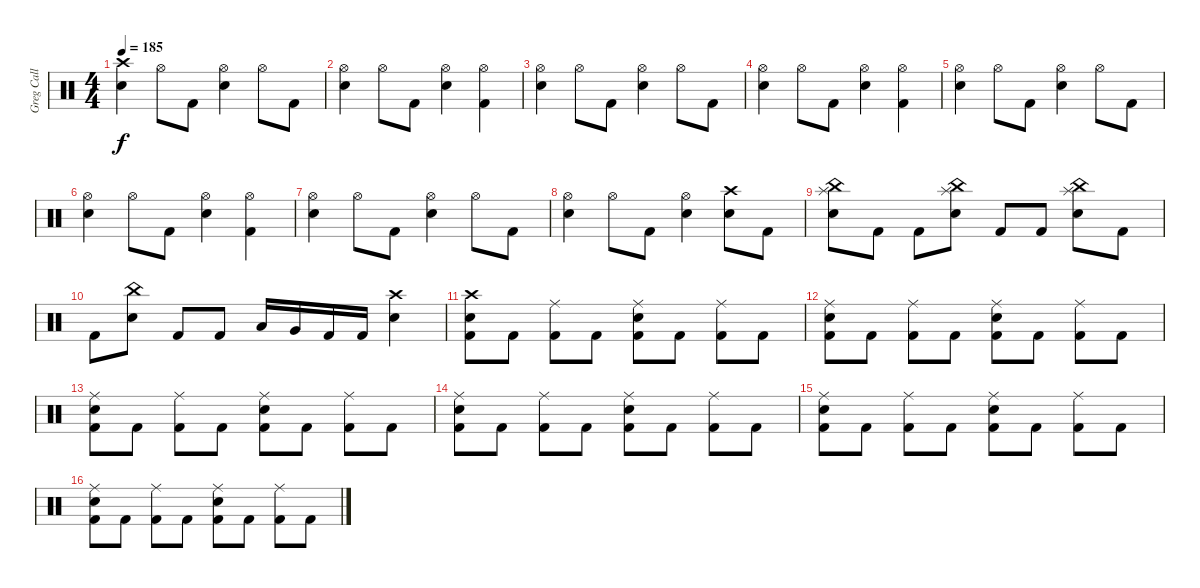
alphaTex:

\track ("Greg Call (Drums)" "Greg Call ") {instrument percussion}
\staff {score}
\articulation defaults
\ts (4 4)
\tempo 185
\clef neutral
\ks c
("Crash high (hit)" "Snare (hit) 2").4{dy f} "Hi-Hat (open)".8 "Kick (hit) 2".8 ("Hi-Hat (open)" "Snare (hit) 2").4 "Hi-Hat (open)".8 "Kick (hit) 2".8 |
("Hi-Hat (open)" "Snare (hit) 2").4 "Hi-Hat (open)".8 "Kick (hit) 2".8 ("Hi-Hat (open)" "Snare (hit) 2").4 ("Hi-Hat (open)" "Kick (hit) 2").4 |
("Hi-Hat (open)" "Snare (hit) 2").4 "Hi-Hat (open)".8 "Kick (hit) 2".8 ("Hi-Hat (open)" "Snare (hit) 2").4 "Hi-Hat (open)".8 "Kick (hit) 2".8 |
("Hi-Hat (open)" "Snare (hit) 2").4 "Hi-Hat (open)".8 "Kick (hit) 2".8 ("Hi-Hat (open)" "Snare (hit) 2").4 ("Hi-Hat (open)" "Kick (hit) 2").4 |
("Hi-Hat (open)" "Snare (hit) 2").4 "Hi-Hat (open)".8 "Kick (hit) 2".8 ("Hi-Hat (open)" "Snare (hit) 2").4 "Hi-Hat (open)".8 "Kick (hit) 2".8 |
("Hi-Hat (open)" "Snare (hit) 2").4 "Hi-Hat (open)".8 "Kick (hit) 2".8 ("Hi-Hat (open)" "Snare (hit) 2").4 ("Hi-Hat (open)" "Kick (hit) 2").4 |
("Hi-Hat (open)" "Snare (hit) 2").4 "Hi-Hat (open)".8 "Kick (hit) 2".8 ("Hi-Hat (open)" "Snare (hit) 2").4 "Hi-Hat (open)".8 "Kick (hit) 2".8 |
("Hi-Hat (open)" "Snare (hit) 2").4 "Hi-Hat (open)".8 "Kick (hit) 2".8 ("Hi-Hat (open)" "Snare (hit) 2").4 ("Crash high (hit)" "Snare (hit) 2").8 "Kick (hit) 2".8 |
("Splash (hit)" "China (hit)" "Snare (hit) 2").8 "Kick (hit) 2".8 "Kick (hit) 2".8 ("Splash (hit)" "China (hit)" "Snare (hit) 2").8 "Kick (hit) 2".8 "Kick (hit) 2".8 ("Splash (hit)" "China (hit)" "Snare (hit) 2").8 "Kick (hit) 2".8 |
"Kick (hit) 2".8 ("China (hit)" "Snare (hit) 2").8 "Kick (hit) 2".8 "Kick (hit) 2".8 "Low Tom (hit)".16 "Very Low Tom (hit)".16 "Kick (hit) 2".16 "Kick (hit) 2".16 ("Crash high (hit)" "Snare (hit) 2").4 |
("Crash high (hit)" "Snare (hit) 2" "Kick (hit) 2").8 "Kick (hit) 2".8 ("Ride (middle)" "Kick (hit) 2").8 "Kick (hit) 2".8 ("Ride (middle)" "Snare (hit) 2" "Kick (hit) 2").8 "Kick (hit) 2".8 ("Ride (middle)" "Kick (hit) 2").8 "Kick (hit) 2".8 |
("Ride (middle)" "Snare (hit) 2" "Kick (hit) 2").8 "Kick (hit) 2".8 ("Ride (middle)" "Kick (hit) 2").8 "Kick (hit) 2".8 ("Ride (middle)" "Snare (hit) 2" "Kick (hit) 2").8 "Kick (hit) 2".8 ("Ride (middle)" "Kick (hit) 2").8 "Kick (hit) 2".8 |
("Ride (middle)" "Snare (hit) 2" "Kick (hit) 2").8 "Kick (hit) 2".8 ("Ride (middle)" "Kick (hit) 2").8 "Kick (hit) 2".8 ("Ride (middle)" "Snare (hit) 2" "Kick (hit) 2").8 "Kick (hit) 2".8 ("Ride (middle)" "Kick (hit) 2").8 "Kick (hit) 2".8 |
("Ride (middle)" "Snare (hit) 2" "Kick (hit) 2").8 "Kick (hit) 2".8 ("Ride (middle)" "Kick (hit) 2").8 "Kick (hit) 2".8 ("Ride (middle)" "Snare (hit) 2" "Kick (hit) 2").8 "Kick (hit) 2".8 ("Ride (middle)" "Kick (hit) 2").8 "Kick (hit) 2".8 |
("Ride (middle)" "Snare (hit) 2" "Kick (hit) 2").8 "Kick (hit) 2".8 ("Ride (middle)" "Kick (hit) 2").8 "Kick (hit) 2".8 ("Ride (middle)" "Snare (hit) 2" "Kick (hit) 2").8 "Kick (hit) 2".8 ("Ride (middle)" "Kick (hit) 2").8 "Kick (hit) 2".8 |
("Ride (middle)" "Snare (hit) 2" "Kick (hit) 2").8 "Kick (hit) 2".8 ("Ride (middle)" "Kick (hit) 2").8 "Kick (hit) 2".8 ("Ride (middle)" "Snare (hit) 2" "Kick (hit) 2").8 "Kick (hit) 2".8 ("Ride (middle)" "Kick (hit) 2").8 "Kick (hit) 2".8
